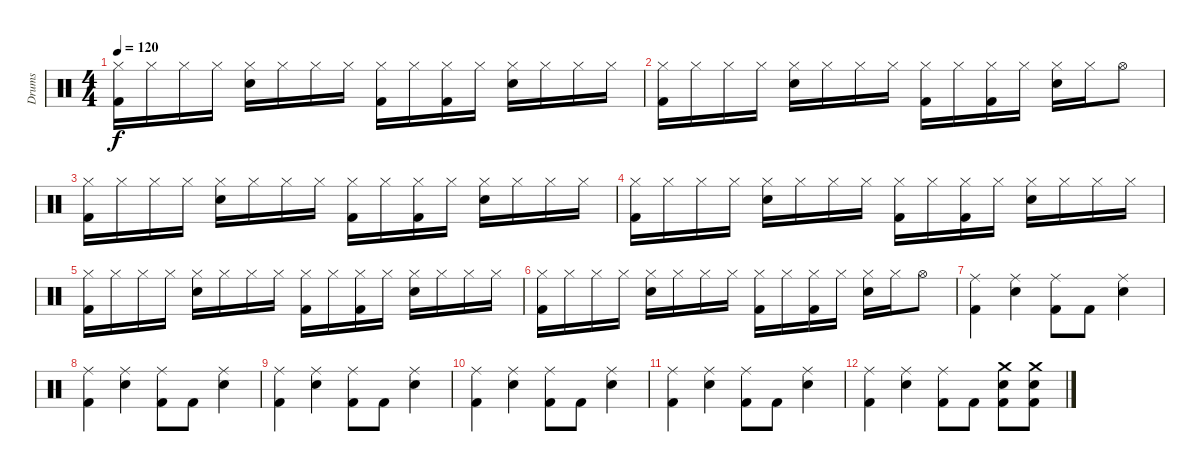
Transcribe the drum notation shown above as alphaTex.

\track ("Drums" "Drums") {instrument percussion}
\staff {score}
\articulation defaults
\ts (4 4)
\tempo 120
\clef neutral
\ks c
("Hi-Hat (closed)" "Kick (hit) 2").16{dy f} "Hi-Hat (closed)".16 "Hi-Hat (closed)".16 "Hi-Hat (closed)".16 ("Hi-Hat (closed)" "Snare (hit) 2").16 "Hi-Hat (closed)".16 "Hi-Hat (closed)".16 "Hi-Hat (closed)".16 ("Hi-Hat (closed)" "Kick (hit) 2").16 "Hi-Hat (closed)".16 ("Hi-Hat (closed)" "Kick (hit) 2").16 "Hi-Hat (closed)".16 ("Hi-Hat (closed)" "Snare (hit) 2").16 "Hi-Hat (closed)".16 "Hi-Hat (closed)".16 "Hi-Hat (closed)".16 |
("Hi-Hat (closed)" "Kick (hit) 2").16 "Hi-Hat (closed)".16 "Hi-Hat (closed)".16 "Hi-Hat (closed)".16 ("Hi-Hat (closed)" "Snare (hit) 2").16 "Hi-Hat (closed)".16 "Hi-Hat (closed)".16 "Hi-Hat (closed)".16 ("Hi-Hat (closed)" "Kick (hit) 2").16 "Hi-Hat (closed)".16 ("Hi-Hat (closed)" "Kick (hit) 2").16 "Hi-Hat (closed)".16 ("Hi-Hat (closed)" "Snare (hit) 2").16 "Hi-Hat (closed)".16 "Hi-Hat (open)".8 |
("Hi-Hat (closed)" "Kick (hit) 2").16 "Hi-Hat (closed)".16 "Hi-Hat (closed)".16 "Hi-Hat (closed)".16 ("Hi-Hat (closed)" "Snare (hit) 2").16 "Hi-Hat (closed)".16 "Hi-Hat (closed)".16 "Hi-Hat (closed)".16 ("Hi-Hat (closed)" "Kick (hit) 2").16 "Hi-Hat (closed)".16 ("Hi-Hat (closed)" "Kick (hit) 2").16 "Hi-Hat (closed)".16 ("Hi-Hat (closed)" "Snare (hit) 2").16 "Hi-Hat (closed)".16 "Hi-Hat (closed)".16 "Hi-Hat (closed)".16 |
("Hi-Hat (closed)" "Kick (hit) 2").16 "Hi-Hat (closed)".16 "Hi-Hat (closed)".16 "Hi-Hat (closed)".16 ("Hi-Hat (closed)" "Snare (hit) 2").16 "Hi-Hat (closed)".16 "Hi-Hat (closed)".16 "Hi-Hat (closed)".16 ("Hi-Hat (closed)" "Kick (hit) 2").16 "Hi-Hat (closed)".16 ("Hi-Hat (closed)" "Kick (hit) 2").16 "Hi-Hat (closed)".16 ("Hi-Hat (closed)" "Snare (hit) 2").16 "Hi-Hat (closed)".16 "Hi-Hat (closed)".16 "Hi-Hat (closed)".16 |
("Hi-Hat (closed)" "Kick (hit) 2").16 "Hi-Hat (closed)".16 "Hi-Hat (closed)".16 "Hi-Hat (closed)".16 ("Hi-Hat (closed)" "Snare (hit) 2").16 "Hi-Hat (closed)".16 "Hi-Hat (closed)".16 "Hi-Hat (closed)".16 ("Hi-Hat (closed)" "Kick (hit) 2").16 "Hi-Hat (closed)".16 ("Hi-Hat (closed)" "Kick (hit) 2").16 "Hi-Hat (closed)".16 ("Hi-Hat (closed)" "Snare (hit) 2").16 "Hi-Hat (closed)".16 "Hi-Hat (closed)".16 "Hi-Hat (closed)".16 |
("Hi-Hat (closed)" "Kick (hit) 2").16 "Hi-Hat (closed)".16 "Hi-Hat (closed)".16 "Hi-Hat (closed)".16 ("Hi-Hat (closed)" "Snare (hit) 2").16 "Hi-Hat (closed)".16 "Hi-Hat (closed)".16 "Hi-Hat (closed)".16 ("Hi-Hat (closed)" "Kick (hit) 2").16 "Hi-Hat (closed)".16 ("Hi-Hat (closed)" "Kick (hit) 2").16 "Hi-Hat (closed)".16 ("Hi-Hat (closed)" "Snare (hit) 2").16 "Hi-Hat (closed)".16 "Hi-Hat (open)".8 |
("Ride (middle)" "Kick (hit) 2").4 ("Ride (middle)" "Snare (hit) 2").4 ("Ride (middle)" "Kick (hit) 2").8 "Kick (hit) 2".8 ("Ride (middle)" "Snare (hit) 2").4 |
("Ride (middle)" "Kick (hit) 2").4 ("Ride (middle)" "Snare (hit) 2").4 ("Ride (middle)" "Kick (hit) 2").8 "Kick (hit) 2".8 ("Ride (middle)" "Snare (hit) 2").4 |
("Ride (middle)" "Kick (hit) 2").4 ("Ride (middle)" "Snare (hit) 2").4 ("Ride (middle)" "Kick (hit) 2").8 "Kick (hit) 2".8 ("Ride (middle)" "Snare (hit) 2").4 |
("Ride (middle)" "Kick (hit) 2").4 ("Ride (middle)" "Snare (hit) 2").4 ("Ride (middle)" "Kick (hit) 2").8 "Kick (hit) 2".8 ("Ride (middle)" "Snare (hit) 2").4 |
("Ride (middle)" "Kick (hit) 2").4 ("Ride (middle)" "Snare (hit) 2").4 ("Ride (middle)" "Kick (hit) 2").8 "Kick (hit) 2".8 ("Ride (middle)" "Snare (hit) 2").4 |
("Ride (middle)" "Kick (hit) 2").4 ("Ride (middle)" "Snare (hit) 2").4 ("Ride (middle)" "Kick (hit) 2").8 "Kick (hit) 2".8 ("Crash medium (hit)" "Snare (hit) 2" "Kick (hit) 2").8 ("Crash medium (hit)" "Snare (hit) 2" "Kick (hit) 2").8
